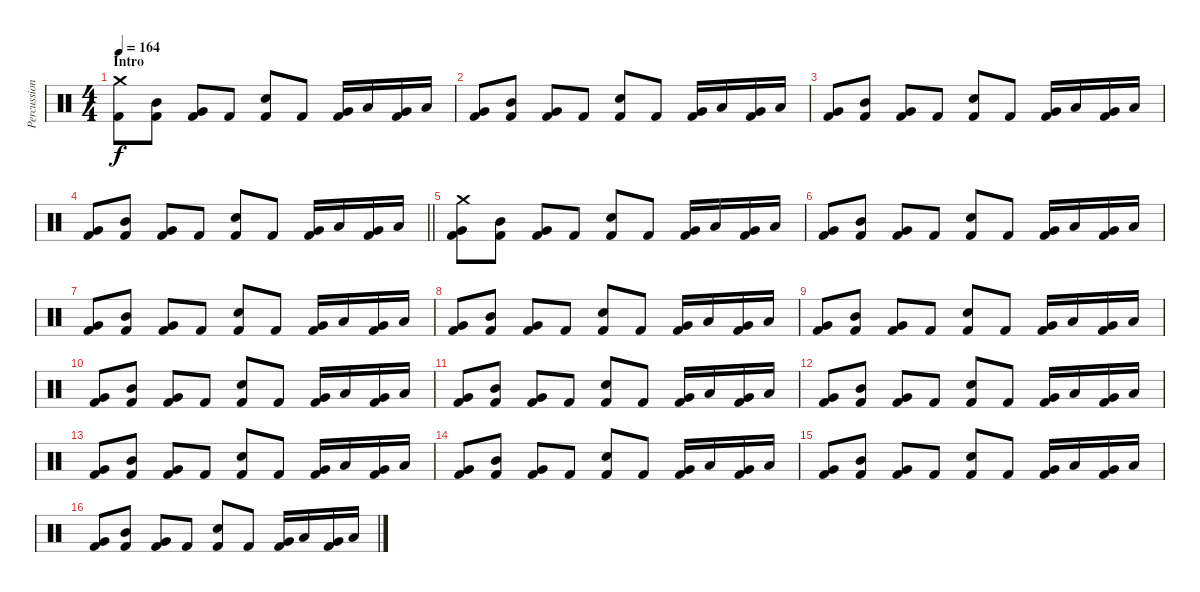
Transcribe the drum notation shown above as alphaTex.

\track ("Percussions" "Percussion") {instrument percussion}
\staff {score}
\articulation defaults
\ts (4 4)
\section ("" "Intro")
\tempo 164
\clef neutral
\ks c
("Crash medium (hit)" "Kick (hit) 2").8{dy f} ("Mid Tom (hit)" "Kick (hit) 2").8 ("Very Low Tom (hit)" "Kick (hit) 2").8 "Kick (hit) 2".8 ("Snare (hit) 2" "Kick (hit) 2").8 "Kick (hit) 2".8 ("Very Low Tom (hit)" "Kick (hit) 2").16 "Low Tom (hit)".16 ("Very Low Tom (hit)" "Kick (hit) 2").16 "Low Tom (hit)".16 |
("Very Low Tom (hit)" "Kick (hit) 2").8 ("Mid Tom (hit)" "Kick (hit) 2").8 ("Very Low Tom (hit)" "Kick (hit) 2").8 "Kick (hit) 2".8 ("Snare (hit) 2" "Kick (hit) 2").8 "Kick (hit) 2".8 ("Very Low Tom (hit)" "Kick (hit) 2").16 "Low Tom (hit)".16 ("Very Low Tom (hit)" "Kick (hit) 2").16 "Low Tom (hit)".16 |
("Very Low Tom (hit)" "Kick (hit) 2").8 ("Mid Tom (hit)" "Kick (hit) 2").8 ("Very Low Tom (hit)" "Kick (hit) 2").8 "Kick (hit) 2".8 ("Snare (hit) 2" "Kick (hit) 2").8 "Kick (hit) 2".8 ("Very Low Tom (hit)" "Kick (hit) 2").16 "Low Tom (hit)".16 ("Very Low Tom (hit)" "Kick (hit) 2").16 "Low Tom (hit)".16 |
\barLineRight lightlight
("Very Low Tom (hit)" "Kick (hit) 2").8 ("Mid Tom (hit)" "Kick (hit) 2").8 ("Very Low Tom (hit)" "Kick (hit) 2").8 "Kick (hit) 2".8 ("Snare (hit) 2" "Kick (hit) 2").8 "Kick (hit) 2".8 ("Very Low Tom (hit)" "Kick (hit) 2").16 "Low Tom (hit)".16 ("Very Low Tom (hit)" "Kick (hit) 2").16 "Low Tom (hit)".16 |
("Crash medium (hit)" "Very Low Tom (hit)" "Kick (hit) 2").8 ("Mid Tom (hit)" "Kick (hit) 2").8 ("Very Low Tom (hit)" "Kick (hit) 2").8 "Kick (hit) 2".8 ("Snare (hit) 2" "Kick (hit) 2").8 "Kick (hit) 2".8 ("Very Low Tom (hit)" "Kick (hit) 2").16 "Low Tom (hit)".16 ("Very Low Tom (hit)" "Kick (hit) 2").16 "Low Tom (hit)".16 |
("Very Low Tom (hit)" "Kick (hit) 2").8 ("Mid Tom (hit)" "Kick (hit) 2").8 ("Very Low Tom (hit)" "Kick (hit) 2").8 "Kick (hit) 2".8 ("Snare (hit) 2" "Kick (hit) 2").8 "Kick (hit) 2".8 ("Very Low Tom (hit)" "Kick (hit) 2").16 "Low Tom (hit)".16 ("Very Low Tom (hit)" "Kick (hit) 2").16 "Low Tom (hit)".16 |
("Very Low Tom (hit)" "Kick (hit) 2").8 ("Mid Tom (hit)" "Kick (hit) 2").8 ("Very Low Tom (hit)" "Kick (hit) 2").8 "Kick (hit) 2".8 ("Snare (hit) 2" "Kick (hit) 2").8 "Kick (hit) 2".8 ("Very Low Tom (hit)" "Kick (hit) 2").16 "Low Tom (hit)".16 ("Very Low Tom (hit)" "Kick (hit) 2").16 "Low Tom (hit)".16 |
("Very Low Tom (hit)" "Kick (hit) 2").8 ("Mid Tom (hit)" "Kick (hit) 2").8 ("Very Low Tom (hit)" "Kick (hit) 2").8 "Kick (hit) 2".8 ("Snare (hit) 2" "Kick (hit) 2").8 "Kick (hit) 2".8 ("Very Low Tom (hit)" "Kick (hit) 2").16 "Low Tom (hit)".16 ("Very Low Tom (hit)" "Kick (hit) 2").16 "Low Tom (hit)".16 |
("Very Low Tom (hit)" "Kick (hit) 2").8 ("Mid Tom (hit)" "Kick (hit) 2").8 ("Very Low Tom (hit)" "Kick (hit) 2").8 "Kick (hit) 2".8 ("Snare (hit) 2" "Kick (hit) 2").8 "Kick (hit) 2".8 ("Very Low Tom (hit)" "Kick (hit) 2").16 "Low Tom (hit)".16 ("Very Low Tom (hit)" "Kick (hit) 2").16 "Low Tom (hit)".16 |
("Very Low Tom (hit)" "Kick (hit) 2").8 ("Mid Tom (hit)" "Kick (hit) 2").8 ("Very Low Tom (hit)" "Kick (hit) 2").8 "Kick (hit) 2".8 ("Snare (hit) 2" "Kick (hit) 2").8 "Kick (hit) 2".8 ("Very Low Tom (hit)" "Kick (hit) 2").16 "Low Tom (hit)".16 ("Very Low Tom (hit)" "Kick (hit) 2").16 "Low Tom (hit)".16 |
("Very Low Tom (hit)" "Kick (hit) 2").8 ("Mid Tom (hit)" "Kick (hit) 2").8 ("Very Low Tom (hit)" "Kick (hit) 2").8 "Kick (hit) 2".8 ("Snare (hit) 2" "Kick (hit) 2").8 "Kick (hit) 2".8 ("Very Low Tom (hit)" "Kick (hit) 2").16 "Low Tom (hit)".16 ("Very Low Tom (hit)" "Kick (hit) 2").16 "Low Tom (hit)".16 |
("Very Low Tom (hit)" "Kick (hit) 2").8 ("Mid Tom (hit)" "Kick (hit) 2").8 ("Very Low Tom (hit)" "Kick (hit) 2").8 "Kick (hit) 2".8 ("Snare (hit) 2" "Kick (hit) 2").8 "Kick (hit) 2".8 ("Very Low Tom (hit)" "Kick (hit) 2").16 "Low Tom (hit)".16 ("Very Low Tom (hit)" "Kick (hit) 2").16 "Low Tom (hit)".16 |
("Very Low Tom (hit)" "Kick (hit) 2").8 ("Mid Tom (hit)" "Kick (hit) 2").8 ("Very Low Tom (hit)" "Kick (hit) 2").8 "Kick (hit) 2".8 ("Snare (hit) 2" "Kick (hit) 2").8 "Kick (hit) 2".8 ("Very Low Tom (hit)" "Kick (hit) 2").16 "Low Tom (hit)".16 ("Very Low Tom (hit)" "Kick (hit) 2").16 "Low Tom (hit)".16 |
("Very Low Tom (hit)" "Kick (hit) 2").8 ("Mid Tom (hit)" "Kick (hit) 2").8 ("Very Low Tom (hit)" "Kick (hit) 2").8 "Kick (hit) 2".8 ("Snare (hit) 2" "Kick (hit) 2").8 "Kick (hit) 2".8 ("Very Low Tom (hit)" "Kick (hit) 2").16 "Low Tom (hit)".16 ("Very Low Tom (hit)" "Kick (hit) 2").16 "Low Tom (hit)".16 |
("Very Low Tom (hit)" "Kick (hit) 2").8 ("Mid Tom (hit)" "Kick (hit) 2").8 ("Very Low Tom (hit)" "Kick (hit) 2").8 "Kick (hit) 2".8 ("Snare (hit) 2" "Kick (hit) 2").8 "Kick (hit) 2".8 ("Very Low Tom (hit)" "Kick (hit) 2").16 "Low Tom (hit)".16 ("Very Low Tom (hit)" "Kick (hit) 2").16 "Low Tom (hit)".16 |
("Very Low Tom (hit)" "Kick (hit) 2").8 ("Mid Tom (hit)" "Kick (hit) 2").8 ("Very Low Tom (hit)" "Kick (hit) 2").8 "Kick (hit) 2".8 ("Snare (hit) 2" "Kick (hit) 2").8 "Kick (hit) 2".8 ("Very Low Tom (hit)" "Kick (hit) 2").16 "Low Tom (hit)".16 ("Very Low Tom (hit)" "Kick (hit) 2").16 "Low Tom (hit)".16
